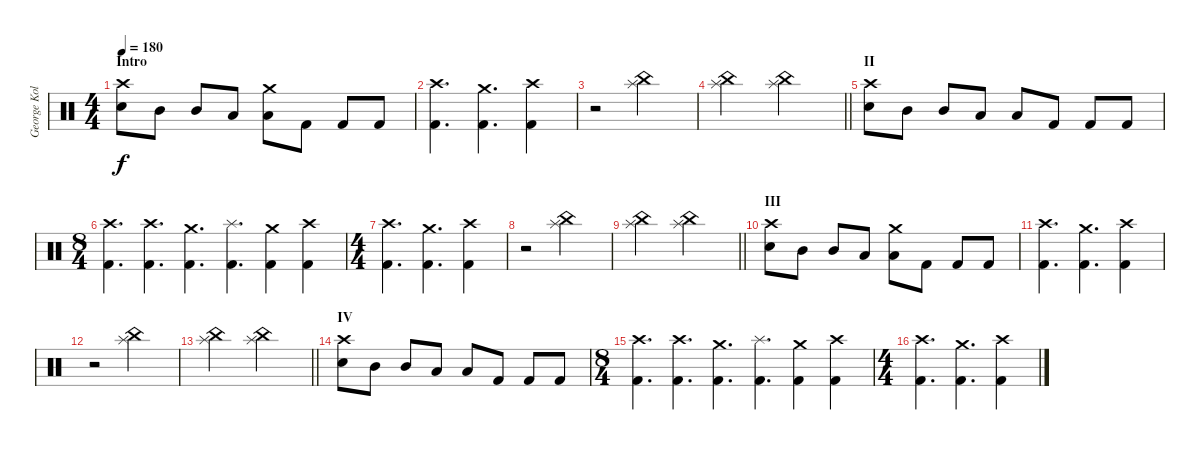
\track ("George Kollias" "George Kol") {instrument percussion}
\staff {score}
\articulation defaults
\ts (4 4)
\section ("" "Intro")
\tempo 180
\clef neutral
\ks c
("Crash high (hit)" "Electric Snare (hit)").8{dy f} "Mid Tom (hit)".8 "Mid Tom (hit)".8 "Low Tom (hit)".8 ("Crash medium (hit)" "Low Tom (hit)").8 "Kick (hit) 2".8 "Kick (hit) 2".8 "Kick (hit) 2".8 |
("Crash high (hit)" "Kick (hit) 2").4{d} ("Crash medium (hit)" "Kick (hit) 2").4{d} ("Crash high (hit)" "Kick (hit) 2").4 |
r.2 ("China (hit)" "Splash (hit)").2 |
\barLineRight lightlight
("China (hit)" "Splash (hit)").2 ("China (hit)" "Splash (hit)").2 |
\section ("" "II")
("Crash high (hit)" "Electric Snare (hit)").8 "Mid Tom (hit)".8 "Mid Tom (hit)".8 "Low Tom (hit)".8 "Low Tom (hit)".8 "Kick (hit) 2".8 "Kick (hit) 2".8 "Kick (hit) 2".8 |
\ts (8 4)
("Crash high (hit)" "Kick (hit) 2").4{d} ("Crash high (hit)" "Kick (hit) 2").4{d} ("Crash medium (hit)" "Kick (hit) 2").4{d} ("Splash (hit)" "Kick (hit) 2").4{d} ("Crash medium (hit)" "Kick (hit) 2").4 ("Crash high (hit)" "Kick (hit) 2").4 |
\ts (4 4)
("Crash high (hit)" "Kick (hit) 2").4{d} ("Crash medium (hit)" "Kick (hit) 2").4{d} ("Crash high (hit)" "Kick (hit) 2").4 |
r.2 ("China (hit)" "Splash (hit)").2 |
\barLineRight lightlight
("China (hit)" "Splash (hit)").2 ("China (hit)" "Splash (hit)").2 |
\section ("" "III")
("Crash high (hit)" "Electric Snare (hit)").8 "Mid Tom (hit)".8 "Mid Tom (hit)".8 "Low Tom (hit)".8 ("Crash medium (hit)" "Low Tom (hit)").8 "Kick (hit) 2".8 "Kick (hit) 2".8 "Kick (hit) 2".8 |
("Crash high (hit)" "Kick (hit) 2").4{d} ("Crash medium (hit)" "Kick (hit) 2").4{d} ("Crash high (hit)" "Kick (hit) 2").4 |
r.2 ("China (hit)" "Splash (hit)").2 |
\barLineRight lightlight
("China (hit)" "Splash (hit)").2 ("China (hit)" "Splash (hit)").2 |
\section ("" "IV")
("Crash high (hit)" "Electric Snare (hit)").8 "Mid Tom (hit)".8 "Mid Tom (hit)".8 "Low Tom (hit)".8 "Low Tom (hit)".8 "Kick (hit) 2".8 "Kick (hit) 2".8 "Kick (hit) 2".8 |
\ts (8 4)
("Crash high (hit)" "Kick (hit) 2").4{d} ("Crash high (hit)" "Kick (hit) 2").4{d} ("Crash medium (hit)" "Kick (hit) 2").4{d} ("Splash (hit)" "Kick (hit) 2").4{d} ("Crash medium (hit)" "Kick (hit) 2").4 ("Crash high (hit)" "Kick (hit) 2").4 |
\ts (4 4)
("Crash high (hit)" "Kick (hit) 2").4{d} ("Crash medium (hit)" "Kick (hit) 2").4{d} ("Crash high (hit)" "Kick (hit) 2").4
